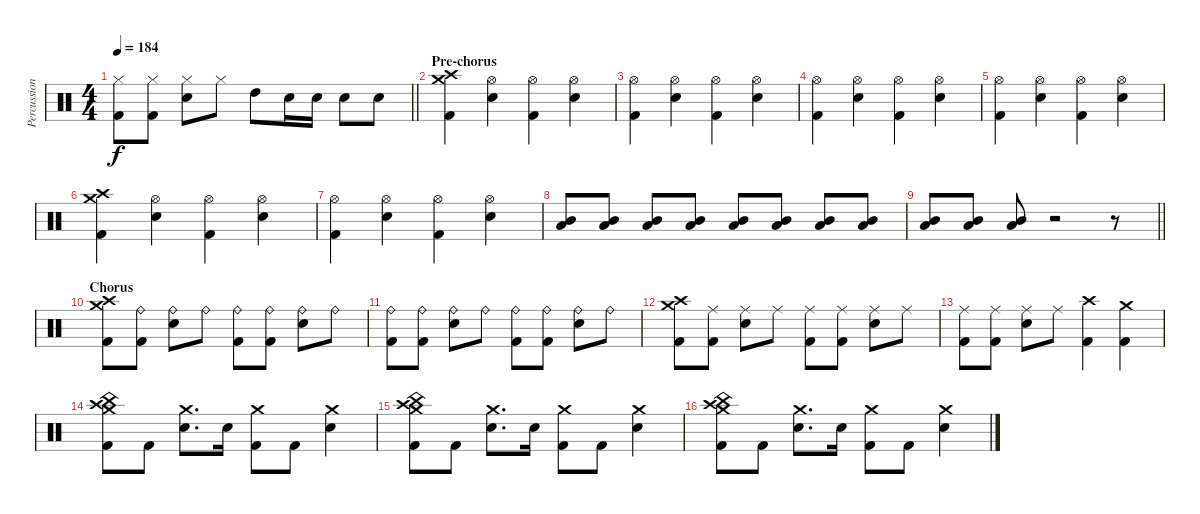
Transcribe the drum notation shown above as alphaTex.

\track ("Percussion" "Percussion") {instrument percussion}
\staff {score}
\articulation defaults
\ts (4 4)
\tempo 184
\clef neutral
\barLineRight lightlight
\ks c
("Hi-Hat (closed)" "Kick (hit) 2").8{dy f} ("Hi-Hat (closed)" "Kick (hit) 2").8 ("Hi-Hat (closed)" "Electric Snare (hit)").8 "Hi-Hat (closed)".8 "High Tom (hit)".8 "Electric Snare (hit)".16 "Electric Snare (hit)".16 "Electric Snare (hit)".8 "Electric Snare (hit)".8 |
\section ("" "Pre-chorus")
("Crash high (hit)" "Crash medium (hit)" "Kick (hit) 2").4 ("Hi-Hat (open)" "Electric Snare (hit)").4 ("Hi-Hat (open)" "Kick (hit) 2").4 ("Hi-Hat (open)" "Electric Snare (hit)").4 |
("Hi-Hat (open)" "Kick (hit) 2").4 ("Hi-Hat (open)" "Electric Snare (hit)").4 ("Hi-Hat (open)" "Kick (hit) 2").4 ("Hi-Hat (open)" "Electric Snare (hit)").4 |
("Hi-Hat (open)" "Kick (hit) 2").4 ("Hi-Hat (open)" "Electric Snare (hit)").4 ("Hi-Hat (open)" "Kick (hit) 2").4 ("Hi-Hat (open)" "Electric Snare (hit)").4 |
("Hi-Hat (open)" "Kick (hit) 2").4 ("Hi-Hat (open)" "Electric Snare (hit)").4 ("Hi-Hat (open)" "Kick (hit) 2").4 ("Hi-Hat (open)" "Electric Snare (hit)").4 |
("Crash high (hit)" "Crash medium (hit)" "Kick (hit) 2").4 ("Hi-Hat (open)" "Electric Snare (hit)").4 ("Hi-Hat (open)" "Kick (hit) 2").4 ("Hi-Hat (open)" "Electric Snare (hit)").4 |
("Hi-Hat (open)" "Kick (hit) 2").4 ("Hi-Hat (open)" "Electric Snare (hit)").4 ("Hi-Hat (open)" "Kick (hit) 2").4 ("Hi-Hat (open)" "Electric Snare (hit)").4 |
("Mid Tom (hit)" "Low Floor Tom (hit)").8 ("Mid Tom (hit)" "Low Floor Tom (hit)").8 ("Mid Tom (hit)" "Low Floor Tom (hit)").8 ("Mid Tom (hit)" "Low Floor Tom (hit)").8 ("Mid Tom (hit)" "Low Floor Tom (hit)").8 ("Mid Tom (hit)" "Low Floor Tom (hit)").8 ("Mid Tom (hit)" "Low Floor Tom (hit)").8 ("Mid Tom (hit)" "Low Floor Tom (hit)").8 |
\barLineRight lightlight
("Mid Tom (hit)" "Low Floor Tom (hit)").8 ("Mid Tom (hit)" "Low Floor Tom (hit)").8 ("Mid Tom (hit)" "Low Floor Tom (hit)").8 r.2 r.8 |
\section ("" "Chorus")
("Crash medium (hit)" "Crash high (hit)" "Kick (hit) 2").8 ("Ride (bell)" "Kick (hit) 2").8 ("Ride (bell)" "Electric Snare (hit)").8 "Ride (bell)".8 ("Ride (bell)" "Kick (hit) 2").8 ("Ride (bell)" "Kick (hit) 2").8 ("Ride (bell)" "Electric Snare (hit)").8 "Ride (bell)".8 |
("Ride (bell)" "Kick (hit) 2").8 ("Ride (bell)" "Kick (hit) 2").8 ("Ride (bell)" "Electric Snare (hit)").8 "Ride (bell)".8 ("Ride (bell)" "Kick (hit) 2").8 ("Ride (bell)" "Kick (hit) 2").8 ("Ride (bell)" "Electric Snare (hit)").8 "Ride (bell)".8 |
("Crash medium (hit)" "Crash high (hit)" "Kick (hit) 2").8 ("Ride (middle)" "Kick (hit) 2").8 ("Ride (middle)" "Electric Snare (hit)").8 "Ride (middle)".8 ("Ride (middle)" "Kick (hit) 2").8 ("Ride (middle)" "Kick (hit) 2").8 ("Ride (middle)" "Electric Snare (hit)").8 "Ride (middle)".8 |
("Ride (middle)" "Kick (hit) 2").8 ("Ride (middle)" "Kick (hit) 2").8 ("Ride (middle)" "Electric Snare (hit)").8 "Ride (middle)".8 ("Crash high (hit)" "Kick (hit) 2").4 ("Crash medium (hit)" "Kick (hit) 2").4 |
("Crash high (hit)" "Crash medium (hit)" "China (hit)" "Kick (hit) 2").8 "Kick (hit) 2".8 ("Crash medium (hit)" "Electric Snare (hit)").8{d} "Electric Snare (hit)".16 ("Crash medium (hit)" "Kick (hit) 2").8 "Kick (hit) 2".8 ("Crash medium (hit)" "Electric Snare (hit)").4 |
("Crash high (hit)" "Crash medium (hit)" "China (hit)" "Kick (hit) 2").8 "Kick (hit) 2".8 ("Crash medium (hit)" "Electric Snare (hit)").8{d} "Electric Snare (hit)".16 ("Crash medium (hit)" "Kick (hit) 2").8 "Kick (hit) 2".8 ("Crash medium (hit)" "Electric Snare (hit)").4 |
("Crash high (hit)" "Crash medium (hit)" "China (hit)" "Kick (hit) 2").8 "Kick (hit) 2".8 ("Crash medium (hit)" "Electric Snare (hit)").8{d} "Electric Snare (hit)".16 ("Crash medium (hit)" "Kick (hit) 2").8 "Kick (hit) 2".8 ("Crash medium (hit)" "Electric Snare (hit)").4
